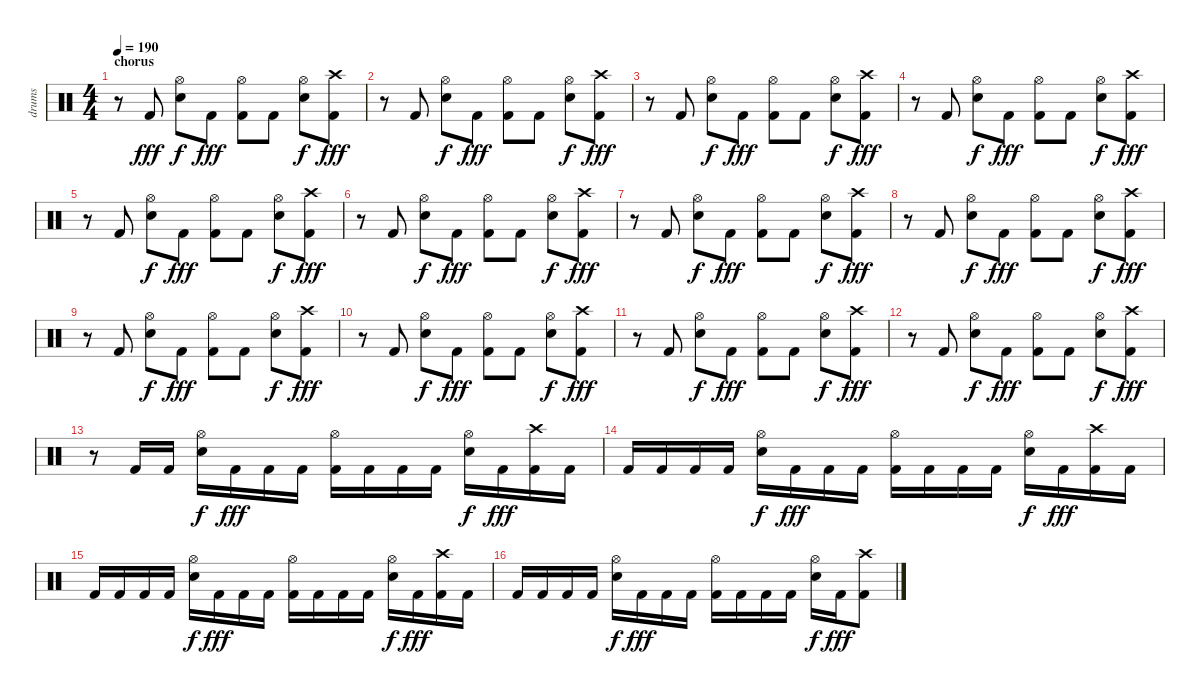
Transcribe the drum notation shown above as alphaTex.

\track ("drums" "drums") {instrument percussion}
\staff {score}
\articulation defaults
\ts (4 4)
\section ("" "chorus")
\tempo 190
\clef neutral
\ks c
r.8{dy fff} "Kick (hit) 2".8 ("Hi-Hat (open)" "Snare (hit) 2").8{dy f} "Kick (hit) 2".8{dy fff} ("Hi-Hat (open)" "Kick (hit) 2").8 "Kick (hit) 2".8 ("Hi-Hat (open)" "Snare (hit) 2").8{dy f} ("Crash high (hit)" "Kick (hit) 2").8{dy fff} |
r.8 "Kick (hit) 2".8 ("Hi-Hat (open)" "Snare (hit) 2").8{dy f} "Kick (hit) 2".8{dy fff} ("Hi-Hat (open)" "Kick (hit) 2").8 "Kick (hit) 2".8 ("Hi-Hat (open)" "Snare (hit) 2").8{dy f} ("Crash high (hit)" "Kick (hit) 2").8{dy fff} |
r.8 "Kick (hit) 2".8 ("Hi-Hat (open)" "Snare (hit) 2").8{dy f} "Kick (hit) 2".8{dy fff} ("Hi-Hat (open)" "Kick (hit) 2").8 "Kick (hit) 2".8 ("Hi-Hat (open)" "Snare (hit) 2").8{dy f} ("Crash high (hit)" "Kick (hit) 2").8{dy fff} |
r.8 "Kick (hit) 2".8 ("Hi-Hat (open)" "Snare (hit) 2").8{dy f} "Kick (hit) 2".8{dy fff} ("Hi-Hat (open)" "Kick (hit) 2").8 "Kick (hit) 2".8 ("Hi-Hat (open)" "Snare (hit) 2").8{dy f} ("Crash high (hit)" "Kick (hit) 2").8{dy fff} |
r.8 "Kick (hit) 2".8 ("Hi-Hat (open)" "Snare (hit) 2").8{dy f} "Kick (hit) 2".8{dy fff} ("Hi-Hat (open)" "Kick (hit) 2").8 "Kick (hit) 2".8 ("Hi-Hat (open)" "Snare (hit) 2").8{dy f} ("Crash high (hit)" "Kick (hit) 2").8{dy fff} |
r.8 "Kick (hit) 2".8 ("Hi-Hat (open)" "Snare (hit) 2").8{dy f} "Kick (hit) 2".8{dy fff} ("Hi-Hat (open)" "Kick (hit) 2").8 "Kick (hit) 2".8 ("Hi-Hat (open)" "Snare (hit) 2").8{dy f} ("Crash high (hit)" "Kick (hit) 2").8{dy fff} |
r.8 "Kick (hit) 2".8 ("Hi-Hat (open)" "Snare (hit) 2").8{dy f} "Kick (hit) 2".8{dy fff} ("Hi-Hat (open)" "Kick (hit) 2").8 "Kick (hit) 2".8 ("Hi-Hat (open)" "Snare (hit) 2").8{dy f} ("Crash high (hit)" "Kick (hit) 2").8{dy fff} |
r.8 "Kick (hit) 2".8 ("Hi-Hat (open)" "Snare (hit) 2").8{dy f} "Kick (hit) 2".8{dy fff} ("Hi-Hat (open)" "Kick (hit) 2").8 "Kick (hit) 2".8 ("Hi-Hat (open)" "Snare (hit) 2").8{dy f} ("Crash high (hit)" "Kick (hit) 2").8{dy fff} |
r.8 "Kick (hit) 2".8 ("Hi-Hat (open)" "Snare (hit) 2").8{dy f} "Kick (hit) 2".8{dy fff} ("Hi-Hat (open)" "Kick (hit) 2").8 "Kick (hit) 2".8 ("Hi-Hat (open)" "Snare (hit) 2").8{dy f} ("Crash high (hit)" "Kick (hit) 2").8{dy fff} |
r.8 "Kick (hit) 2".8 ("Hi-Hat (open)" "Snare (hit) 2").8{dy f} "Kick (hit) 2".8{dy fff} ("Hi-Hat (open)" "Kick (hit) 2").8 "Kick (hit) 2".8 ("Hi-Hat (open)" "Snare (hit) 2").8{dy f} ("Crash high (hit)" "Kick (hit) 2").8{dy fff} |
r.8 "Kick (hit) 2".8 ("Hi-Hat (open)" "Snare (hit) 2").8{dy f} "Kick (hit) 2".8{dy fff} ("Hi-Hat (open)" "Kick (hit) 2").8 "Kick (hit) 2".8 ("Hi-Hat (open)" "Snare (hit) 2").8{dy f} ("Crash high (hit)" "Kick (hit) 2").8{dy fff} |
r.8 "Kick (hit) 2".8 ("Hi-Hat (open)" "Snare (hit) 2").8{dy f} "Kick (hit) 2".8{dy fff} ("Hi-Hat (open)" "Kick (hit) 2").8 "Kick (hit) 2".8 ("Hi-Hat (open)" "Snare (hit) 2").8{dy f} ("Crash high (hit)" "Kick (hit) 2").8{dy fff} |
r.8 "Kick (hit) 2".16 "Kick (hit) 2".16 ("Hi-Hat (open)" "Snare (hit) 2").16{dy f} "Kick (hit) 2".16{dy fff} "Kick (hit) 2".16 "Kick (hit) 2".16 ("Hi-Hat (open)" "Kick (hit) 2").16 "Kick (hit) 2".16 "Kick (hit) 2".16 "Kick (hit) 2".16 ("Hi-Hat (open)" "Snare (hit) 2").16{dy f} "Kick (hit) 2".16{dy fff} ("Crash high (hit)" "Kick (hit) 2").16 "Kick (hit) 2".16 |
"Kick (hit) 2".16 "Kick (hit) 2".16 "Kick (hit) 2".16 "Kick (hit) 2".16 ("Hi-Hat (open)" "Snare (hit) 2").16{dy f} "Kick (hit) 2".16{dy fff} "Kick (hit) 2".16 "Kick (hit) 2".16 ("Hi-Hat (open)" "Kick (hit) 2").16 "Kick (hit) 2".16 "Kick (hit) 2".16 "Kick (hit) 2".16 ("Hi-Hat (open)" "Snare (hit) 2").16{dy f} "Kick (hit) 2".16{dy fff} ("Crash high (hit)" "Kick (hit) 2").16 "Kick (hit) 2".16 |
"Kick (hit) 2".16 "Kick (hit) 2".16 "Kick (hit) 2".16 "Kick (hit) 2".16 ("Hi-Hat (open)" "Snare (hit) 2").16{dy f} "Kick (hit) 2".16{dy fff} "Kick (hit) 2".16 "Kick (hit) 2".16 ("Hi-Hat (open)" "Kick (hit) 2").16 "Kick (hit) 2".16 "Kick (hit) 2".16 "Kick (hit) 2".16 ("Hi-Hat (open)" "Snare (hit) 2").16{dy f} "Kick (hit) 2".16{dy fff} ("Crash high (hit)" "Kick (hit) 2").16 "Kick (hit) 2".16 |
"Kick (hit) 2".16 "Kick (hit) 2".16 "Kick (hit) 2".16 "Kick (hit) 2".16 ("Hi-Hat (open)" "Snare (hit) 2").16{dy f} "Kick (hit) 2".16{dy fff} "Kick (hit) 2".16 "Kick (hit) 2".16 ("Hi-Hat (open)" "Kick (hit) 2").16 "Kick (hit) 2".16 "Kick (hit) 2".16 "Kick (hit) 2".16 ("Hi-Hat (open)" "Snare (hit) 2").16{dy f} "Kick (hit) 2".16{dy fff} ("Crash high (hit)" "Kick (hit) 2").8
